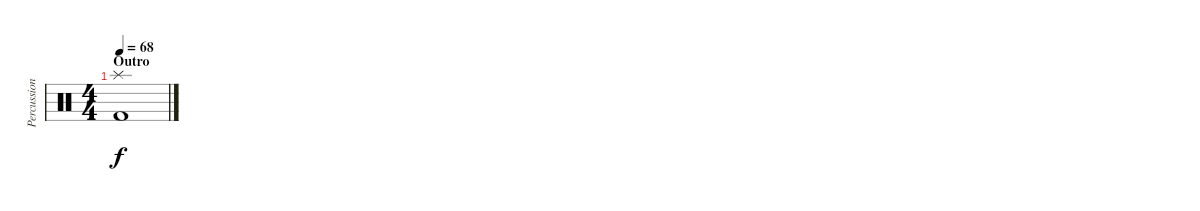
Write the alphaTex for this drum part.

\track ("Percussion" "Percussion") {instrument percussion}
\staff {score}
\articulation defaults
\ts (4 4)
\section ("" "Outro")
\tempo 68
\clef neutral
\ks c
("Splash (hit)" "Kick (hit) 2").1{dy f}
